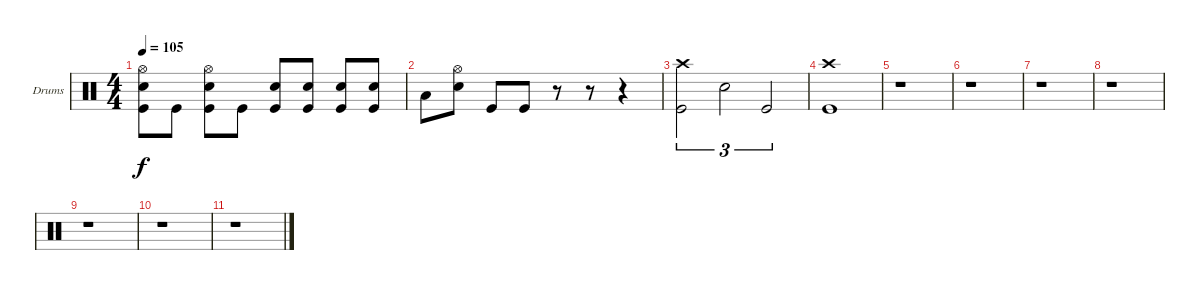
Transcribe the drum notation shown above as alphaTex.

\bracketExtendMode groupsimilarinstruments
\firstSystemTrackNameOrientation horizontal
\otherSystemsTrackNameOrientation horizontal
\track ("Drumkit" "Drums") {instrument percussion}
\staff {score}
\articulation defaults
\ts (4 4)
\tempo 105
\clef neutral
\ks c
("Hi-Hat (open)" "Snare (hit) 2" "Kick (hit)").8{dy f} "Kick (hit)".8 ("Hi-Hat (open)" "Snare (hit) 2" "Kick (hit)").8 "Kick (hit)".8 ("Snare (hit) 2" "Kick (hit)").8 ("Snare (hit) 2" "Kick (hit)").8 ("Snare (hit) 2" "Kick (hit)").8 ("Snare (hit) 2" "Kick (hit)").8 |
"Low Tom (hit)".8 ("Hi-Hat (open)" "Snare (hit) 2").8 "Kick (hit)".8 "Kick (hit)".8 r.8 r.8 r.4 |
("Crash high (hit)" "Kick (hit)").2{tu (3 2)} "Snare (hit) 2".2{tu (3 2)} "Kick (hit)".2{tu (3 2)} |
("Crash high (hit)" "Kick (hit)").1 |
r.1 |
r.1 |
r.1 |
r.1 |
r.1 |
r.1 |
r.1
